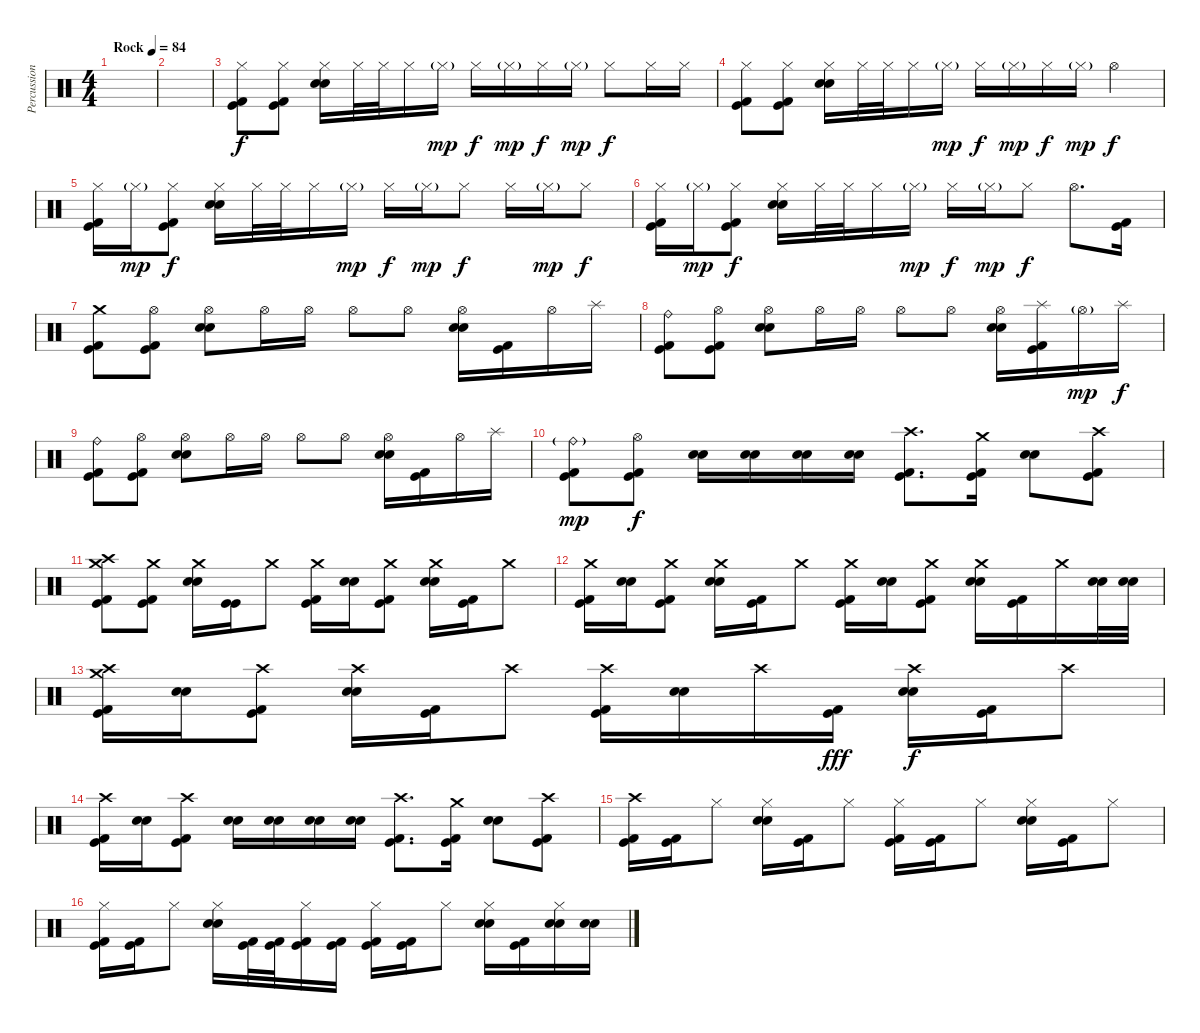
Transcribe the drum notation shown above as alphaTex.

\track ("Percussion" "Percussion") {instrument percussion}
\staff {score}
\articulation defaults
\ts (4 4)
\tempo (84 "Rock")
\clef neutral
\ks c
|
|
("Hi-Hat (closed)" "Kick (hit)" "Kick (hit) 2").8 ("Hi-Hat (closed)" "Kick (hit)" "Kick (hit) 2").8 ("Hi-Hat (closed)" "Electric Snare (hit)" "Snare (hit) 2").16 "Hi-Hat (closed)".32 "Hi-Hat (closed)".32 "Hi-Hat (closed)".16 "Hi-Hat (closed)"{g}.16{dy mp} "Hi-Hat (closed)".16{dy f} "Hi-Hat (closed)"{g}.16{dy mp} "Hi-Hat (closed)".16{dy f} "Hi-Hat (closed)"{g}.16{dy mp} "Hi-Hat (closed)".8{dy f} "Hi-Hat (closed)".16 "Hi-Hat (closed)".16 |
("Hi-Hat (closed)" "Kick (hit)" "Kick (hit) 2").8 ("Hi-Hat (closed)" "Kick (hit)" "Kick (hit) 2").8 ("Hi-Hat (closed)" "Electric Snare (hit)" "Snare (hit) 2").16 "Hi-Hat (closed)".32 "Hi-Hat (closed)".32 "Hi-Hat (closed)".16 "Hi-Hat (closed)"{g}.16{dy mp} "Hi-Hat (closed)".16{dy f} "Hi-Hat (closed)"{g}.16{dy mp} "Hi-Hat (closed)".16{dy f} "Hi-Hat (closed)"{g}.16{dy mp} "Hi-Hat (open)".4{dy f} |
("Hi-Hat (closed)" "Kick (hit)" "Kick (hit) 2").16 "Hi-Hat (closed)"{g}.16{dy mp} ("Hi-Hat (closed)" "Kick (hit)" "Kick (hit) 2").8{dy f} ("Hi-Hat (closed)" "Electric Snare (hit)" "Snare (hit) 2").16 "Hi-Hat (closed)".32 "Hi-Hat (closed)".32 "Hi-Hat (closed)".16 "Hi-Hat (closed)"{g}.16{dy mp} "Hi-Hat (closed)".16{dy f} "Hi-Hat (closed)"{g}.16{dy mp} "Hi-Hat (closed)".8{dy f} "Hi-Hat (closed)".16 "Hi-Hat (closed)"{g}.16{dy mp} "Hi-Hat (closed)".8{dy f} |
("Hi-Hat (closed)" "Kick (hit)" "Kick (hit) 2").16 "Hi-Hat (closed)"{g}.16{dy mp} ("Hi-Hat (closed)" "Kick (hit)" "Kick (hit) 2").8{dy f} ("Hi-Hat (closed)" "Electric Snare (hit)" "Snare (hit) 2").16 "Hi-Hat (closed)".32 "Hi-Hat (closed)".32 "Hi-Hat (closed)".16 "Hi-Hat (closed)"{g}.16{dy mp} "Hi-Hat (closed)".16{dy f} "Hi-Hat (closed)"{g}.16{dy mp} "Hi-Hat (closed)".8{dy f} "Hi-Hat (open)".8{d} ("Kick (hit)" "Kick (hit) 2").16 |
("Crash medium (hit)" "Kick (hit)" "Kick (hit) 2").8 ("Hi-Hat (open)" "Kick (hit)" "Kick (hit) 2").8 ("Hi-Hat (open)" "Electric Snare (hit)" "Snare (hit) 2").8 "Hi-Hat (open)".16 "Hi-Hat (open)".16 "Hi-Hat (open)".8 "Hi-Hat (open)".8 ("Hi-Hat (open)" "Electric Snare (hit)" "Snare (hit) 2").16 ("Kick (hit)" "Kick (hit) 2").16 "Hi-Hat (open)".16 "Splash (hit)".16 |
("Ride (bell)" "Kick (hit)" "Kick (hit) 2").8 ("Hi-Hat (open)" "Kick (hit)" "Kick (hit) 2").8 ("Hi-Hat (open)" "Electric Snare (hit)" "Snare (hit) 2").8 "Hi-Hat (open)".16 "Hi-Hat (open)".16 "Hi-Hat (open)".8 "Hi-Hat (open)".8 ("Hi-Hat (open)" "Electric Snare (hit)" "Snare (hit) 2").16 ("Splash (hit)" "Kick (hit)" "Kick (hit) 2").16 "Hi-Hat (open)"{g}.16{dy mp} "Splash (hit)".16{dy f} |
("Ride (bell)" "Kick (hit)" "Kick (hit) 2").8 ("Hi-Hat (open)" "Kick (hit)" "Kick (hit) 2").8 ("Hi-Hat (open)" "Electric Snare (hit)" "Snare (hit) 2").8 "Hi-Hat (open)".16 "Hi-Hat (open)".16 "Hi-Hat (open)".8 "Hi-Hat (open)".8 ("Hi-Hat (open)" "Electric Snare (hit)" "Snare (hit) 2").16 ("Kick (hit)" "Kick (hit) 2").16 "Hi-Hat (open)".16 "Splash (hit)".16 |
("Ride (bell)"{g} "Kick (hit)" "Kick (hit) 2").8{dy mp} ("Hi-Hat (open)" "Kick (hit)" "Kick (hit) 2").8{dy f} ("Electric Snare (hit)" "Snare (hit) 2").16 ("Electric Snare (hit)" "Snare (hit) 2").16 ("Electric Snare (hit)" "Snare (hit) 2").16 ("Electric Snare (hit)" "Snare (hit) 2").16 ("Crash high (hit)" "Kick (hit)" "Kick (hit) 2").8{d} ("Crash medium (hit)" "Kick (hit)" "Kick (hit) 2").16 ("Electric Snare (hit)" "Snare (hit) 2").8 ("Crash high (hit)" "Kick (hit)" "Kick (hit) 2").8 |
("Crash medium (hit)" "Crash high (hit)" "Kick (hit)" "Kick (hit) 2").8 ("Crash medium (hit)" "Kick (hit)" "Kick (hit) 2").8 ("Crash medium (hit)" "Electric Snare (hit)" "Snare (hit) 2").16 ("Kick (hit)" "Kick (hit)").16 "Crash medium (hit)".8 ("Crash medium (hit)" "Kick (hit)" "Kick (hit) 2").16 ("Electric Snare (hit)" "Snare (hit) 2").16 ("Crash medium (hit)" "Kick (hit)" "Kick (hit) 2").8 ("Crash medium (hit)" "Electric Snare (hit)" "Snare (hit) 2").16 ("Kick (hit)" "Kick (hit) 2").16 "Crash medium (hit)".8 |
("Crash medium (hit)" "Kick (hit)" "Kick (hit) 2").16 ("Electric Snare (hit)" "Snare (hit) 2").16 ("Crash medium (hit)" "Kick (hit)" "Kick (hit) 2").8 ("Crash medium (hit)" "Electric Snare (hit)" "Snare (hit) 2").16 ("Kick (hit)" "Kick (hit) 2").16 "Crash medium (hit)".8 ("Crash medium (hit)" "Kick (hit)" "Kick (hit) 2").16 ("Electric Snare (hit)" "Snare (hit) 2").16 ("Crash medium (hit)" "Kick (hit)" "Kick (hit) 2").8 ("Crash medium (hit)" "Electric Snare (hit)" "Snare (hit) 2").16 ("Kick (hit)" "Kick (hit) 2").16 "Crash medium (hit)".16 ("Electric Snare (hit)" "Snare (hit) 2").32 ("Electric Snare (hit)" "Snare (hit) 2").32 |
("Crash high (hit)" "Crash medium (hit)" "Kick (hit)" "Kick (hit) 2").16 ("Electric Snare (hit)" "Snare (hit) 2").16 ("Crash high (hit)" "Kick (hit)" "Kick (hit) 2").8 ("Crash high (hit)" "Electric Snare (hit)" "Snare (hit) 2").16 ("Kick (hit)" "Kick (hit) 2").16 "Crash high (hit)".8 ("Crash high (hit)" "Kick (hit)" "Kick (hit) 2").16 ("Electric Snare (hit)" "Snare (hit) 2").16 "Crash high (hit)".16 ("Kick (hit)" "Kick (hit) 2").16{dy fff} ("Crash high (hit)" "Electric Snare (hit)" "Snare (hit) 2").16{dy f} ("Kick (hit)" "Kick (hit) 2").16 "Crash high (hit)".8 |
("Crash high (hit)" "Kick (hit)" "Kick (hit) 2").16 ("Electric Snare (hit)" "Snare (hit) 2").16 ("Crash high (hit)" "Kick (hit)" "Kick (hit) 2").8 ("Electric Snare (hit)" "Snare (hit) 2").16 ("Electric Snare (hit)" "Snare (hit) 2").16 ("Electric Snare (hit)" "Snare (hit) 2").16 ("Electric Snare (hit)" "Snare (hit) 2").16 ("Crash high (hit)" "Kick (hit)" "Kick (hit) 2").8{d} ("Crash medium (hit)" "Kick (hit)" "Kick (hit) 2").16 ("Electric Snare (hit)" "Snare (hit) 2").8 ("Crash high (hit)" "Kick (hit)" "Kick (hit) 2").8 |
("Crash high (hit)" "Kick (hit)" "Kick (hit) 2").16 ("Kick (hit)" "Kick (hit) 2").16 "Hi-Hat (closed)".8 ("Hi-Hat (closed)" "Electric Snare (hit)" "Snare (hit) 2").16 ("Kick (hit)" "Kick (hit) 2").16 "Hi-Hat (closed)".8 ("Hi-Hat (closed)" "Kick (hit)" "Kick (hit) 2").16 ("Kick (hit)" "Kick (hit) 2").16 "Hi-Hat (closed)".8 ("Hi-Hat (closed)" "Electric Snare (hit)" "Snare (hit) 2").16 ("Kick (hit)" "Kick (hit) 2").16 "Hi-Hat (closed)".8 |
("Hi-Hat (closed)" "Kick (hit)" "Kick (hit) 2").16 ("Kick (hit)" "Kick (hit) 2").16 "Hi-Hat (closed)".8 ("Hi-Hat (closed)" "Electric Snare (hit)" "Snare (hit) 2").16 ("Kick (hit)" "Kick (hit) 2").32 ("Kick (hit)" "Kick (hit) 2").32 ("Hi-Hat (closed)" "Kick (hit)" "Kick (hit) 2").16 ("Kick (hit)" "Kick (hit) 2").16 ("Hi-Hat (closed)" "Kick (hit)" "Kick (hit) 2").16 ("Kick (hit)" "Kick (hit) 2").16 "Hi-Hat (closed)".8 ("Hi-Hat (closed)" "Electric Snare (hit)" "Snare (hit) 2").16 ("Kick (hit)" "Kick (hit) 2").16 ("Hi-Hat (closed)" "Electric Snare (hit)" "Snare (hit) 2").16 ("Electric Snare (hit)" "Snare (hit) 2").16
